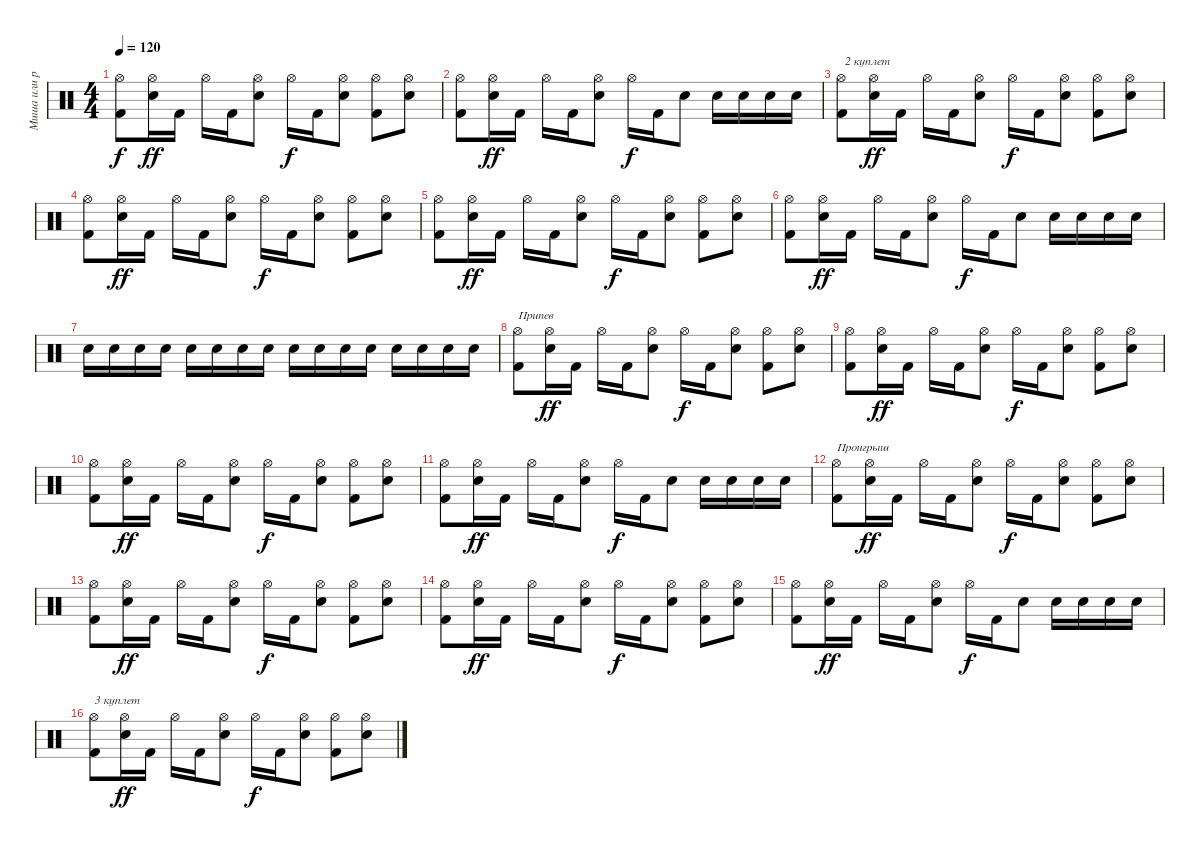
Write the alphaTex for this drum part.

\track ("Миша или рома" "Миша или р") {instrument percussion}
\staff {score}
\articulation defaults
\ts (4 4)
\tempo 120
\clef neutral
\ks c
("Hi-Hat (open)" "Kick (hit) 2").8{dy f} ("Hi-Hat (open)" "Snare (hit) 2").16{dy ff} "Kick (hit) 2".16 "Hi-Hat (open)".16 "Kick (hit) 2".16 ("Hi-Hat (open)" "Snare (hit) 2").8 "Hi-Hat (open)".16{dy f} "Kick (hit) 2".16 ("Hi-Hat (open)" "Snare (hit) 2").8 ("Kick (hit) 2" "Hi-Hat (open)").8 ("Snare (hit) 2" "Hi-Hat (open)").8 |
("Hi-Hat (open)" "Kick (hit) 2").8 ("Hi-Hat (open)" "Snare (hit) 2").16{dy ff} "Kick (hit) 2".16 "Hi-Hat (open)".16 "Kick (hit) 2".16 ("Hi-Hat (open)" "Snare (hit) 2").8 "Hi-Hat (open)".16{dy f} "Kick (hit) 2".16 "Snare (hit) 2".8 "Snare (hit) 2".16 "Snare (hit) 2".16 "Snare (hit) 2".16 "Snare (hit) 2".16 |
("Hi-Hat (open)" "Kick (hit) 2").8{txt " 2 куплет"} ("Hi-Hat (open)" "Snare (hit) 2").16{dy ff} "Kick (hit) 2".16 "Hi-Hat (open)".16 "Kick (hit) 2".16 ("Hi-Hat (open)" "Snare (hit) 2").8 "Hi-Hat (open)".16{dy f} "Kick (hit) 2".16 ("Hi-Hat (open)" "Snare (hit) 2").8 ("Kick (hit) 2" "Hi-Hat (open)").8 ("Snare (hit) 2" "Hi-Hat (open)").8 |
("Hi-Hat (open)" "Kick (hit) 2").8 ("Hi-Hat (open)" "Snare (hit) 2").16{dy ff} "Kick (hit) 2".16 "Hi-Hat (open)".16 "Kick (hit) 2".16 ("Hi-Hat (open)" "Snare (hit) 2").8 "Hi-Hat (open)".16{dy f} "Kick (hit) 2".16 ("Hi-Hat (open)" "Snare (hit) 2").8 ("Kick (hit) 2" "Hi-Hat (open)").8 ("Hi-Hat (open)" "Snare (hit) 2").8 |
("Hi-Hat (open)" "Kick (hit) 2").8 ("Hi-Hat (open)" "Snare (hit) 2").16{dy ff} "Kick (hit) 2".16 "Hi-Hat (open)".16 "Kick (hit) 2".16 ("Hi-Hat (open)" "Snare (hit) 2").8 "Hi-Hat (open)".16{dy f} "Kick (hit) 2".16 ("Hi-Hat (open)" "Snare (hit) 2").8 ("Kick (hit) 2" "Hi-Hat (open)").8 ("Snare (hit) 2" "Hi-Hat (open)").8 |
("Hi-Hat (open)" "Kick (hit) 2").8 ("Hi-Hat (open)" "Snare (hit) 2").16{dy ff} "Kick (hit) 2".16 "Hi-Hat (open)".16 "Kick (hit) 2".16 ("Hi-Hat (open)" "Snare (hit) 2").8 "Hi-Hat (open)".16{dy f} "Kick (hit) 2".16 "Snare (hit) 2".8 "Snare (hit) 2".16 "Snare (hit) 2".16 "Snare (hit) 2".16 "Snare (hit) 2".16 |
"Snare (hit) 2".16 "Snare (hit) 2".16 "Snare (hit) 2".16 "Snare (hit) 2".16 "Snare (hit) 2".16 "Snare (hit) 2".16 "Snare (hit) 2".16 "Snare (hit) 2".16 "Snare (hit) 2".16 "Snare (hit) 2".16 "Snare (hit) 2".16 "Snare (hit) 2".16 "Snare (hit) 2".16 "Snare (hit) 2".16 "Snare (hit) 2".16 "Snare (hit) 2".16 |
("Hi-Hat (open)" "Kick (hit) 2").8{txt "Припев"} ("Hi-Hat (open)" "Snare (hit) 2").16{dy ff} "Kick (hit) 2".16 "Hi-Hat (open)".16 "Kick (hit) 2".16 ("Hi-Hat (open)" "Snare (hit) 2").8 "Hi-Hat (open)".16{dy f} "Kick (hit) 2".16 ("Hi-Hat (open)" "Snare (hit) 2").8 ("Kick (hit) 2" "Hi-Hat (open)").8 ("Snare (hit) 2" "Hi-Hat (open)").8 |
("Hi-Hat (open)" "Kick (hit) 2").8 ("Hi-Hat (open)" "Snare (hit) 2").16{dy ff} "Kick (hit) 2".16 "Hi-Hat (open)".16 "Kick (hit) 2".16 ("Hi-Hat (open)" "Snare (hit) 2").8 "Hi-Hat (open)".16{dy f} "Kick (hit) 2".16 ("Hi-Hat (open)" "Snare (hit) 2").8 ("Kick (hit) 2" "Hi-Hat (open)").8 ("Hi-Hat (open)" "Snare (hit) 2").8 |
("Hi-Hat (open)" "Kick (hit) 2").8 ("Hi-Hat (open)" "Snare (hit) 2").16{dy ff} "Kick (hit) 2".16 "Hi-Hat (open)".16 "Kick (hit) 2".16 ("Hi-Hat (open)" "Snare (hit) 2").8 "Hi-Hat (open)".16{dy f} "Kick (hit) 2".16 ("Hi-Hat (open)" "Snare (hit) 2").8 ("Kick (hit) 2" "Hi-Hat (open)").8 ("Snare (hit) 2" "Hi-Hat (open)").8 |
("Hi-Hat (open)" "Kick (hit) 2").8 ("Hi-Hat (open)" "Snare (hit) 2").16{dy ff} "Kick (hit) 2".16 "Hi-Hat (open)".16 "Kick (hit) 2".16 ("Hi-Hat (open)" "Snare (hit) 2").8 "Hi-Hat (open)".16{dy f} "Kick (hit) 2".16 "Snare (hit) 2".8 "Snare (hit) 2".16 "Snare (hit) 2".16 "Snare (hit) 2".16 "Snare (hit) 2".16 |
("Hi-Hat (open)" "Kick (hit) 2").8{txt "Проигрыш"} ("Hi-Hat (open)" "Snare (hit) 2").16{dy ff} "Kick (hit) 2".16 "Hi-Hat (open)".16 "Kick (hit) 2".16 ("Hi-Hat (open)" "Snare (hit) 2").8 "Hi-Hat (open)".16{dy f} "Kick (hit) 2".16 ("Hi-Hat (open)" "Snare (hit) 2").8 ("Kick (hit) 2" "Hi-Hat (open)").8 ("Snare (hit) 2" "Hi-Hat (open)").8 |
("Hi-Hat (open)" "Kick (hit) 2").8 ("Hi-Hat (open)" "Snare (hit) 2").16{dy ff} "Kick (hit) 2".16 "Hi-Hat (open)".16 "Kick (hit) 2".16 ("Hi-Hat (open)" "Snare (hit) 2").8 "Hi-Hat (open)".16{dy f} "Kick (hit) 2".16 ("Hi-Hat (open)" "Snare (hit) 2").8 ("Kick (hit) 2" "Hi-Hat (open)").8 ("Hi-Hat (open)" "Snare (hit) 2").8 |
("Hi-Hat (open)" "Kick (hit) 2").8 ("Hi-Hat (open)" "Snare (hit) 2").16{dy ff} "Kick (hit) 2".16 "Hi-Hat (open)".16 "Kick (hit) 2".16 ("Hi-Hat (open)" "Snare (hit) 2").8 "Hi-Hat (open)".16{dy f} "Kick (hit) 2".16 ("Hi-Hat (open)" "Snare (hit) 2").8 ("Kick (hit) 2" "Hi-Hat (open)").8 ("Snare (hit) 2" "Hi-Hat (open)").8 |
("Hi-Hat (open)" "Kick (hit) 2").8 ("Hi-Hat (open)" "Snare (hit) 2").16{dy ff} "Kick (hit) 2".16 "Hi-Hat (open)".16 "Kick (hit) 2".16 ("Hi-Hat (open)" "Snare (hit) 2").8 "Hi-Hat (open)".16{dy f} "Kick (hit) 2".16 "Snare (hit) 2".8 "Snare (hit) 2".16 "Snare (hit) 2".16 "Snare (hit) 2".16 "Snare (hit) 2".16 |
("Hi-Hat (open)" "Kick (hit) 2").8{txt "3 куплет"} ("Hi-Hat (open)" "Snare (hit) 2").16{dy ff} "Kick (hit) 2".16 "Hi-Hat (open)".16 "Kick (hit) 2".16 ("Hi-Hat (open)" "Snare (hit) 2").8 "Hi-Hat (open)".16{dy f} "Kick (hit) 2".16 ("Hi-Hat (open)" "Snare (hit) 2").8 ("Kick (hit) 2" "Hi-Hat (open)").8 ("Snare (hit) 2" "Hi-Hat (open)").8
